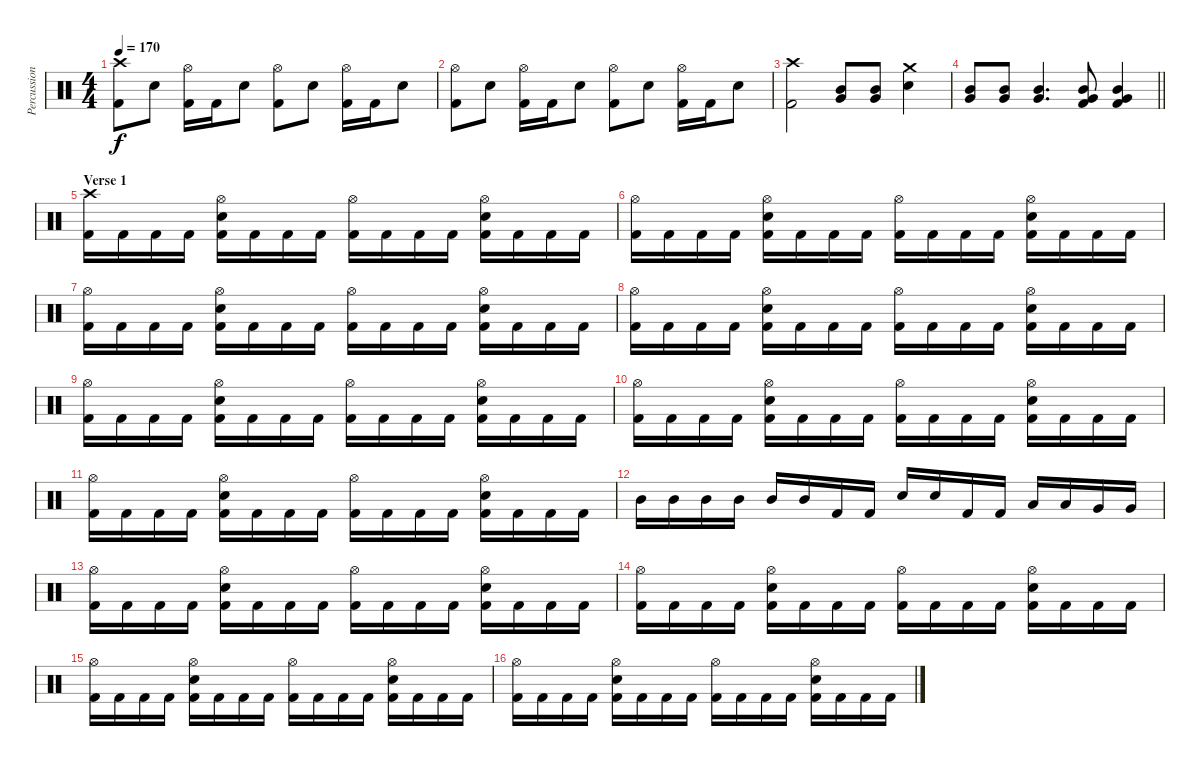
\track ("Percussions" "Percussion") {instrument percussion}
\staff {score}
\articulation defaults
\ts (4 4)
\tempo 170
\clef neutral
\ks c
("Crash high (hit)" "Kick (hit) 2").8{dy f} "Electric Snare (hit)".8 ("Hi-Hat (open)" "Kick (hit) 2").16 "Kick (hit) 2".16 "Electric Snare (hit)".8 ("Hi-Hat (open)" "Kick (hit) 2").8 "Electric Snare (hit)".8 ("Hi-Hat (open)" "Kick (hit) 2").16 "Kick (hit) 2".16 "Electric Snare (hit)".8 |
("Hi-Hat (open)" "Kick (hit) 2").8 "Electric Snare (hit)".8 ("Hi-Hat (open)" "Kick (hit) 2").16 "Kick (hit) 2".16 "Electric Snare (hit)".8 ("Hi-Hat (open)" "Kick (hit) 2").8 "Electric Snare (hit)".8 ("Hi-Hat (open)" "Kick (hit) 2").16 "Kick (hit) 2".16 "Electric Snare (hit)".8 |
("Crash high (hit)" "Kick (hit) 2").2 ("Mid Tom (hit)" "Very Low Tom (hit)").8 ("Mid Tom (hit)" "Very Low Tom (hit)").8 ("Crash medium (hit)" "Electric Snare (hit)").4 |
\barLineRight lightlight
("Mid Tom (hit)" "Very Low Tom (hit)").8 ("Mid Tom (hit)" "Very Low Tom (hit)").8 ("Mid Tom (hit)" "Very Low Tom (hit)").4{d} ("Mid Tom (hit)" "Very Low Tom (hit)" "Kick (hit) 2").8 ("Mid Tom (hit)" "Very Low Tom (hit)" "Kick (hit) 2").4 |
\section ("" "Verse 1")
("Crash high (hit)" "Kick (hit) 2").16 "Kick (hit) 2".16 "Kick (hit) 2".16 "Kick (hit) 2".16 ("Hi-Hat (open)" "Electric Snare (hit)" "Kick (hit) 2").16 "Kick (hit) 2".16 "Kick (hit) 2".16 "Kick (hit) 2".16 ("Hi-Hat (open)" "Kick (hit) 2").16 "Kick (hit) 2".16 "Kick (hit) 2".16 "Kick (hit) 2".16 ("Hi-Hat (open)" "Electric Snare (hit)" "Kick (hit) 2").16 "Kick (hit) 2".16 "Kick (hit) 2".16 "Kick (hit) 2".16 |
("Hi-Hat (open)" "Kick (hit) 2").16 "Kick (hit) 2".16 "Kick (hit) 2".16 "Kick (hit) 2".16 ("Hi-Hat (open)" "Electric Snare (hit)" "Kick (hit) 2").16 "Kick (hit) 2".16 "Kick (hit) 2".16 "Kick (hit) 2".16 ("Hi-Hat (open)" "Kick (hit) 2").16 "Kick (hit) 2".16 "Kick (hit) 2".16 "Kick (hit) 2".16 ("Hi-Hat (open)" "Electric Snare (hit)" "Kick (hit) 2").16 "Kick (hit) 2".16 "Kick (hit) 2".16 "Kick (hit) 2".16 |
("Hi-Hat (open)" "Kick (hit) 2").16 "Kick (hit) 2".16 "Kick (hit) 2".16 "Kick (hit) 2".16 ("Hi-Hat (open)" "Electric Snare (hit)" "Kick (hit) 2").16 "Kick (hit) 2".16 "Kick (hit) 2".16 "Kick (hit) 2".16 ("Hi-Hat (open)" "Kick (hit) 2").16 "Kick (hit) 2".16 "Kick (hit) 2".16 "Kick (hit) 2".16 ("Hi-Hat (open)" "Electric Snare (hit)" "Kick (hit) 2").16 "Kick (hit) 2".16 "Kick (hit) 2".16 "Kick (hit) 2".16 |
("Hi-Hat (open)" "Kick (hit) 2").16 "Kick (hit) 2".16 "Kick (hit) 2".16 "Kick (hit) 2".16 ("Hi-Hat (open)" "Electric Snare (hit)" "Kick (hit) 2").16 "Kick (hit) 2".16 "Kick (hit) 2".16 "Kick (hit) 2".16 ("Hi-Hat (open)" "Kick (hit) 2").16 "Kick (hit) 2".16 "Kick (hit) 2".16 "Kick (hit) 2".16 ("Hi-Hat (open)" "Electric Snare (hit)" "Kick (hit) 2").16 "Kick (hit) 2".16 "Kick (hit) 2".16 "Kick (hit) 2".16 |
("Hi-Hat (open)" "Kick (hit) 2").16 "Kick (hit) 2".16 "Kick (hit) 2".16 "Kick (hit) 2".16 ("Hi-Hat (open)" "Electric Snare (hit)" "Kick (hit) 2").16 "Kick (hit) 2".16 "Kick (hit) 2".16 "Kick (hit) 2".16 ("Hi-Hat (open)" "Kick (hit) 2").16 "Kick (hit) 2".16 "Kick (hit) 2".16 "Kick (hit) 2".16 ("Hi-Hat (open)" "Electric Snare (hit)" "Kick (hit) 2").16 "Kick (hit) 2".16 "Kick (hit) 2".16 "Kick (hit) 2".16 |
("Hi-Hat (open)" "Kick (hit) 2").16 "Kick (hit) 2".16 "Kick (hit) 2".16 "Kick (hit) 2".16 ("Hi-Hat (open)" "Electric Snare (hit)" "Kick (hit) 2").16 "Kick (hit) 2".16 "Kick (hit) 2".16 "Kick (hit) 2".16 ("Hi-Hat (open)" "Kick (hit) 2").16 "Kick (hit) 2".16 "Kick (hit) 2".16 "Kick (hit) 2".16 ("Hi-Hat (open)" "Electric Snare (hit)" "Kick (hit) 2").16 "Kick (hit) 2".16 "Kick (hit) 2".16 "Kick (hit) 2".16 |
("Hi-Hat (open)" "Kick (hit) 2").16 "Kick (hit) 2".16 "Kick (hit) 2".16 "Kick (hit) 2".16 ("Hi-Hat (open)" "Electric Snare (hit)" "Kick (hit) 2").16 "Kick (hit) 2".16 "Kick (hit) 2".16 "Kick (hit) 2".16 ("Hi-Hat (open)" "Kick (hit) 2").16 "Kick (hit) 2".16 "Kick (hit) 2".16 "Kick (hit) 2".16 ("Hi-Hat (open)" "Electric Snare (hit)" "Kick (hit) 2").16 "Kick (hit) 2".16 "Kick (hit) 2".16 "Kick (hit) 2".16 |
"Mid Tom (hit)".16 "Mid Tom (hit)".16 "Mid Tom (hit)".16 "Mid Tom (hit)".16 "Mid Tom (hit)".16 "Mid Tom (hit)".16 "Kick (hit) 2".16 "Kick (hit) 2".16 "Electric Snare (hit)".16 "Electric Snare (hit)".16 "Kick (hit) 2".16 "Kick (hit) 2".16 "Low Tom (hit)".16 "Low Tom (hit)".16 "Very Low Tom (hit)".16 "Very Low Tom (hit)".16 |
("Hi-Hat (open)" "Kick (hit) 2").16 "Kick (hit) 2".16 "Kick (hit) 2".16 "Kick (hit) 2".16 ("Hi-Hat (open)" "Electric Snare (hit)" "Kick (hit) 2").16 "Kick (hit) 2".16 "Kick (hit) 2".16 "Kick (hit) 2".16 ("Hi-Hat (open)" "Kick (hit) 2").16 "Kick (hit) 2".16 "Kick (hit) 2".16 "Kick (hit) 2".16 ("Hi-Hat (open)" "Electric Snare (hit)" "Kick (hit) 2").16 "Kick (hit) 2".16 "Kick (hit) 2".16 "Kick (hit) 2".16 |
("Hi-Hat (open)" "Kick (hit) 2").16 "Kick (hit) 2".16 "Kick (hit) 2".16 "Kick (hit) 2".16 ("Hi-Hat (open)" "Electric Snare (hit)" "Kick (hit) 2").16 "Kick (hit) 2".16 "Kick (hit) 2".16 "Kick (hit) 2".16 ("Hi-Hat (open)" "Kick (hit) 2").16 "Kick (hit) 2".16 "Kick (hit) 2".16 "Kick (hit) 2".16 ("Hi-Hat (open)" "Electric Snare (hit)" "Kick (hit) 2").16 "Kick (hit) 2".16 "Kick (hit) 2".16 "Kick (hit) 2".16 |
("Hi-Hat (open)" "Kick (hit) 2").16 "Kick (hit) 2".16 "Kick (hit) 2".16 "Kick (hit) 2".16 ("Hi-Hat (open)" "Electric Snare (hit)" "Kick (hit) 2").16 "Kick (hit) 2".16 "Kick (hit) 2".16 "Kick (hit) 2".16 ("Hi-Hat (open)" "Kick (hit) 2").16 "Kick (hit) 2".16 "Kick (hit) 2".16 "Kick (hit) 2".16 ("Hi-Hat (open)" "Electric Snare (hit)" "Kick (hit) 2").16 "Kick (hit) 2".16 "Kick (hit) 2".16 "Kick (hit) 2".16 |
("Hi-Hat (open)" "Kick (hit) 2").16 "Kick (hit) 2".16 "Kick (hit) 2".16 "Kick (hit) 2".16 ("Hi-Hat (open)" "Electric Snare (hit)" "Kick (hit) 2").16 "Kick (hit) 2".16 "Kick (hit) 2".16 "Kick (hit) 2".16 ("Hi-Hat (open)" "Kick (hit) 2").16 "Kick (hit) 2".16 "Kick (hit) 2".16 "Kick (hit) 2".16 ("Hi-Hat (open)" "Electric Snare (hit)" "Kick (hit) 2").16 "Kick (hit) 2".16 "Kick (hit) 2".16 "Kick (hit) 2".16
